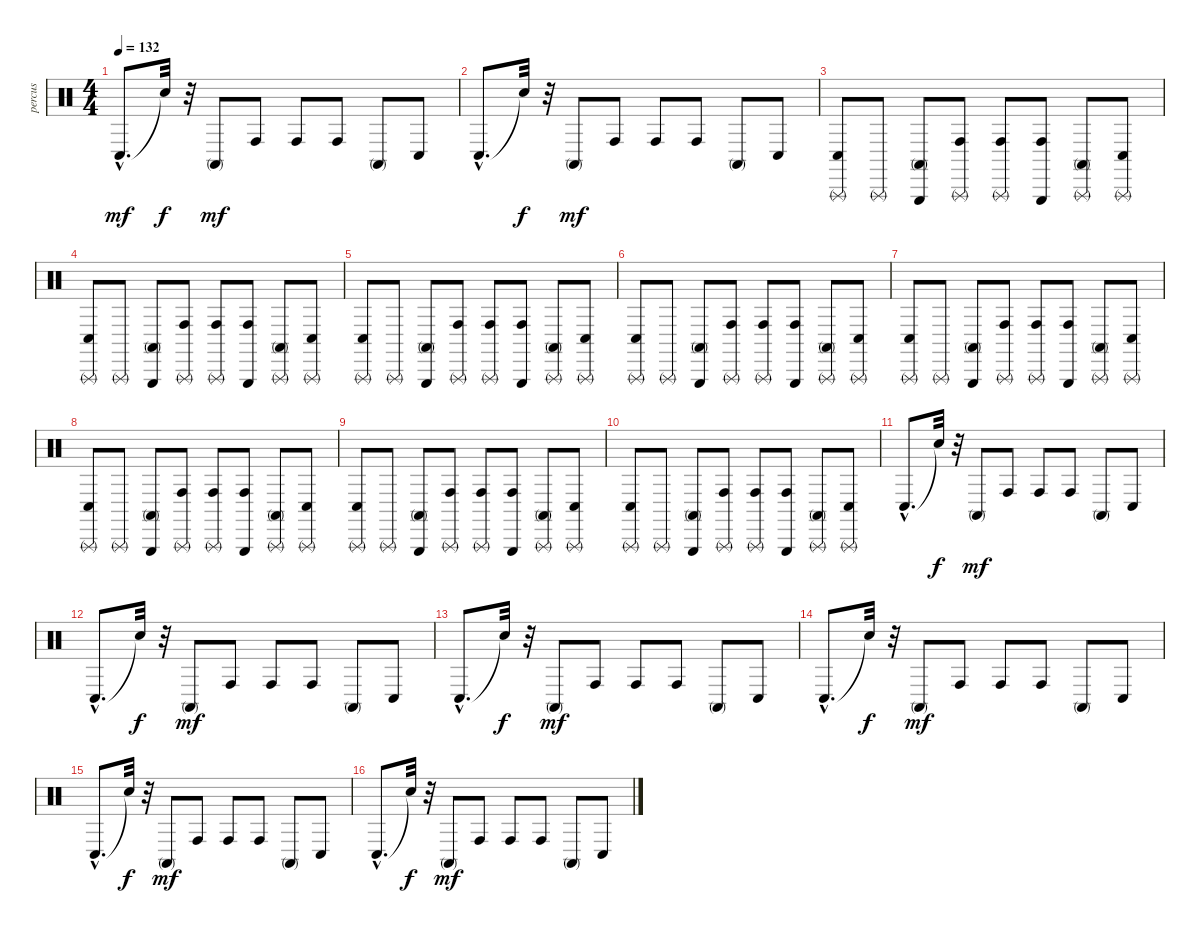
\track ("percus" "percus") {instrument percussion}
\staff {score}
\articulation defaults
\ts (4 4)
\tempo 132
\clef neutral
\ks c "Conga low (hit)"{hac}.8{d dy mf} "Snare (hit)"{t}.32{dy f}
r.32 "Conga high (mute)".8{dy mf} "Conga high (hit)".8 "Conga high (hit)".8 "Conga high (hit)".8 "Conga high (mute)".8 "Conga low (hit)".8 |
"Conga low (hit)"{hac}.8{d} "Snare (hit)"{t}.32{dy f} r.32 "Conga high (mute)".8{dy mf} "Conga high (hit)".8 "Conga high (hit)".8 "Conga high (hit)".8 "Conga high (mute)".8 "Conga low (hit)".8 |
("Conga low (hit)" "Triangle (rnute)").8 "Triangle (rnute)".8 ("Conga high (mute)" "Triangle (hit)").8 ("Conga high (hit)" "Triangle (rnute)").8 ("Conga high (hit)" "Triangle (rnute)").8 ("Conga high (hit)" "Triangle (hit)").8 ("Conga high (mute)" "Triangle (rnute)").8 ("Conga low (hit)" "Triangle (rnute)").8 |
("Conga low (hit)" "Triangle (rnute)").8 "Triangle (rnute)".8 ("Conga high (mute)" "Triangle (hit)").8 ("Conga high (hit)" "Triangle (rnute)").8 ("Conga high (hit)" "Triangle (rnute)").8 ("Conga high (hit)" "Triangle (hit)").8 ("Conga high (mute)" "Triangle (rnute)").8 ("Conga low (hit)" "Triangle (rnute)").8 |
("Conga low (hit)" "Triangle (rnute)").8 "Triangle (rnute)".8 ("Conga high (mute)" "Triangle (hit)").8 ("Conga high (hit)" "Triangle (rnute)").8 ("Conga high (hit)" "Triangle (rnute)").8 ("Conga high (hit)" "Triangle (hit)").8 ("Conga high (mute)" "Triangle (rnute)").8 ("Conga low (hit)" "Triangle (rnute)").8 |
("Conga low (hit)" "Triangle (rnute)").8 "Triangle (rnute)".8 ("Conga high (mute)" "Triangle (hit)").8 ("Conga high (hit)" "Triangle (rnute)").8 ("Conga high (hit)" "Triangle (rnute)").8 ("Conga high (hit)" "Triangle (hit)").8 ("Conga high (mute)" "Triangle (rnute)").8 ("Conga low (hit)" "Triangle (rnute)").8 |
("Conga low (hit)" "Triangle (rnute)").8 "Triangle (rnute)".8 ("Conga high (mute)" "Triangle (hit)").8 ("Conga high (hit)" "Triangle (rnute)").8 ("Conga high (hit)" "Triangle (rnute)").8 ("Conga high (hit)" "Triangle (hit)").8 ("Conga high (mute)" "Triangle (rnute)").8 ("Conga low (hit)" "Triangle (rnute)").8 |
("Conga low (hit)" "Triangle (rnute)").8 "Triangle (rnute)".8 ("Conga high (mute)" "Triangle (hit)").8 ("Conga high (hit)" "Triangle (rnute)").8 ("Conga high (hit)" "Triangle (rnute)").8 ("Conga high (hit)" "Triangle (hit)").8 ("Conga high (mute)" "Triangle (rnute)").8 ("Conga low (hit)" "Triangle (rnute)").8 |
("Conga low (hit)" "Triangle (rnute)").8 "Triangle (rnute)".8 ("Conga high (mute)" "Triangle (hit)").8 ("Conga high (hit)" "Triangle (rnute)").8 ("Conga high (hit)" "Triangle (rnute)").8 ("Conga high (hit)" "Triangle (hit)").8 ("Conga high (mute)" "Triangle (rnute)").8 ("Conga low (hit)" "Triangle (rnute)").8 |
("Conga low (hit)" "Triangle (rnute)").8 "Triangle (rnute)".8 ("Conga high (mute)" "Triangle (hit)").8 ("Conga high (hit)" "Triangle (rnute)").8 ("Conga high (hit)" "Triangle (rnute)").8 ("Conga high (hit)" "Triangle (hit)").8 ("Conga high (mute)" "Triangle (rnute)").8 ("Conga low (hit)" "Triangle (rnute)").8 |
"Conga low (hit)"{hac}.8{d} "Snare (hit)"{t}.32{dy f} r.32 "Conga high (mute)".8{dy mf} "Conga high (hit)".8 "Conga high (hit)".8 "Conga high (hit)".8 "Conga high (mute)".8 "Conga low (hit)".8 |
"Conga low (hit)"{hac}.8{d} "Snare (hit)"{t}.32{dy f} r.32 "Conga high (mute)".8{dy mf} "Conga high (hit)".8 "Conga high (hit)".8 "Conga high (hit)".8 "Conga high (mute)".8 "Conga low (hit)".8 |
"Conga low (hit)"{hac}.8{d} "Snare (hit)"{t}.32{dy f} r.32 "Conga high (mute)".8{dy mf} "Conga high (hit)".8 "Conga high (hit)".8 "Conga high (hit)".8 "Conga high (mute)".8 "Conga low (hit)".8 |
"Conga low (hit)"{hac}.8{d} "Snare (hit)"{t}.32{dy f} r.32 "Conga high (mute)".8{dy mf} "Conga high (hit)".8 "Conga high (hit)".8 "Conga high (hit)".8 "Conga high (mute)".8 "Conga low (hit)".8 |
"Conga low (hit)"{hac}.8{d} "Snare (hit)"{t}.32{dy f} r.32 "Conga high (mute)".8{dy mf} "Conga high (hit)".8 "Conga high (hit)".8 "Conga high (hit)".8 "Conga high (mute)".8 "Conga low (hit)".8 |
"Conga low (hit)"{hac}.8{d} "Snare (hit)"{t}.32{dy f} r.32 "Conga high (mute)".8{dy mf} "Conga high (hit)".8 "Conga high (hit)".8 "Conga high (hit)".8 "Conga high (mute)".8 "Conga low (hit)".8
